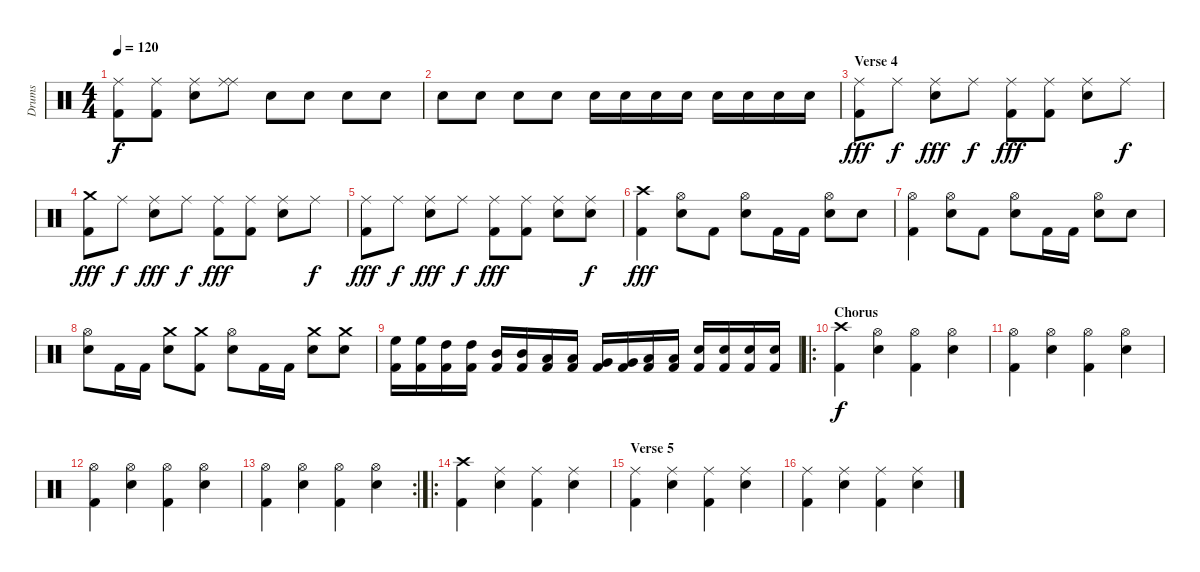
\track ("Drums" "Drums") {instrument percussion}
\staff {score}
\articulation defaults
\ts (4 4)
\tempo 120
\clef neutral
\ks c
("Ride (middle)" "Kick (hit) 2").8{dy f} ("Ride (middle)" "Kick (hit) 2").8 ("Ride (middle)" "Electric Snare (hit)").8 ("Ride (middle)" "Ride (middle)").8 "Electric Snare (hit)".8 "Electric Snare (hit)".8 "Electric Snare (hit)".8 "Electric Snare (hit)".8 |
"Electric Snare (hit)".8 "Electric Snare (hit)".8 "Electric Snare (hit)".8 "Electric Snare (hit)".8 "Electric Snare (hit)".16 "Electric Snare (hit)".16 "Electric Snare (hit)".16 "Electric Snare (hit)".16 "Electric Snare (hit)".16 "Electric Snare (hit)".16 "Electric Snare (hit)".16 "Electric Snare (hit)".16 |
\section ("" "Verse 4")
("Ride (middle)" "Kick (hit) 2").8{dy fff} "Ride (middle)".8{dy f} ("Ride (middle)" "Electric Snare (hit)").8{dy fff} "Ride (middle)".8{dy f} ("Ride (middle)" "Kick (hit) 2").8{dy fff} ("Ride (middle)" "Kick (hit) 2").8 ("Ride (middle)" "Electric Snare (hit)").8 "Ride (middle)".8{dy f} |
("Crash medium (hit)" "Kick (hit) 2").8{dy fff} "Ride (middle)".8{dy f} ("Ride (middle)" "Electric Snare (hit)").8{dy fff} "Ride (middle)".8{dy f} ("Ride (middle)" "Kick (hit) 2").8{dy fff} ("Ride (middle)" "Kick (hit) 2").8 ("Ride (middle)" "Electric Snare (hit)").8 "Ride (middle)".8{dy f} |
("Ride (middle)" "Kick (hit) 2").8{dy fff} "Ride (middle)".8{dy f} ("Ride (middle)" "Electric Snare (hit)").8{dy fff} "Ride (middle)".8{dy f} ("Ride (middle)" "Kick (hit) 2").8{dy fff} ("Ride (middle)" "Kick (hit) 2").8 ("Ride (middle)" "Electric Snare (hit)").8 ("Ride (middle)" "Electric Snare (hit)").8{dy f} |
("Crash high (hit)" "Kick (hit) 2").4{dy fff} ("Hi-Hat (open)" "Electric Snare (hit)").8 "Kick (hit) 2".8 ("Hi-Hat (open)" "Electric Snare (hit)").8 "Kick (hit) 2".16 "Kick (hit) 2".16 ("Hi-Hat (open)" "Electric Snare (hit)").8 "Electric Snare (hit)".8 |
("Hi-Hat (open)" "Kick (hit) 2").4 ("Hi-Hat (open)" "Electric Snare (hit)").8 "Kick (hit) 2".8 ("Hi-Hat (open)" "Electric Snare (hit)").8 "Kick (hit) 2".16 "Kick (hit) 2".16 ("Hi-Hat (open)" "Electric Snare (hit)").8 "Electric Snare (hit)".8 |
("Hi-Hat (open)" "Electric Snare (hit)").8 "Kick (hit) 2".16 "Kick (hit) 2".16 ("Crash medium (hit)" "Electric Snare (hit)").8 ("Crash medium (hit)" "Kick (hit) 2").8 ("Hi-Hat (open)" "Electric Snare (hit)").8 "Kick (hit) 2".16 "Kick (hit) 2".16 ("Crash medium (hit)" "Electric Snare (hit)").8 ("Crash medium (hit)" "Electric Snare (hit)").8 |
("High Floor Tom (hit)" "Kick (hit) 2").16 ("High Floor Tom (hit)" "Kick (hit) 2").16 ("High Tom (hit)" "Kick (hit) 2").16 ("High Tom (hit)" "Kick (hit) 2").16 ("Mid Tom (hit)" "Kick (hit) 2").16 ("Mid Tom (hit)" "Kick (hit) 2").16 ("Low Tom (hit)" "Kick (hit) 2").16 ("Low Tom (hit)" "Kick (hit) 2").16 ("Very Low Tom (hit)" "Kick (hit) 2").16 ("Very Low Tom (hit)" "Kick (hit) 2").16 ("Low Floor Tom (hit)" "Kick (hit) 2").16 ("Low Floor Tom (hit)" "Kick (hit) 2").16 ("Electric Snare (hit)" "Kick (hit) 2").16 ("Electric Snare (hit)" "Kick (hit) 2").16 ("Electric Snare (hit)" "Kick (hit) 2").16 ("Electric Snare (hit)" "Kick (hit) 2").16 |
\ro
\section ("" "Chorus")
("Crash high (hit)" "Kick (hit) 2").4{dy f} ("Hi-Hat (open)" "Electric Snare (hit)").4 ("Hi-Hat (open)" "Kick (hit) 2").4 ("Hi-Hat (open)" "Electric Snare (hit)").4 |
("Hi-Hat (open)" "Kick (hit) 2").4 ("Hi-Hat (open)" "Electric Snare (hit)").4 ("Hi-Hat (open)" "Kick (hit) 2").4 ("Hi-Hat (open)" "Electric Snare (hit)").4 |
("Hi-Hat (open)" "Kick (hit) 2").4 ("Hi-Hat (open)" "Electric Snare (hit)").4 ("Hi-Hat (open)" "Kick (hit) 2").4 ("Hi-Hat (open)" "Electric Snare (hit)").4 |
\rc 2
("Hi-Hat (open)" "Kick (hit) 2").4 ("Hi-Hat (open)" "Electric Snare (hit)").4 ("Hi-Hat (open)" "Kick (hit) 2").4 ("Hi-Hat (open)" "Electric Snare (hit)").4 |
\ro
("Crash high (hit)" "Kick (hit) 2").4 ("Ride (middle)" "Electric Snare (hit)").4 ("Ride (middle)" "Kick (hit) 2").4 ("Ride (middle)" "Electric Snare (hit)").4 |
\section ("" "Verse 5")
("Ride (middle)" "Kick (hit) 2").4 ("Ride (middle)" "Electric Snare (hit)").4 ("Ride (middle)" "Kick (hit) 2").4 ("Ride (middle)" "Electric Snare (hit)").4 |
("Ride (middle)" "Kick (hit) 2").4 ("Ride (middle)" "Electric Snare (hit)").4 ("Ride (middle)" "Kick (hit) 2").4 ("Ride (middle)" "Electric Snare (hit)").4
